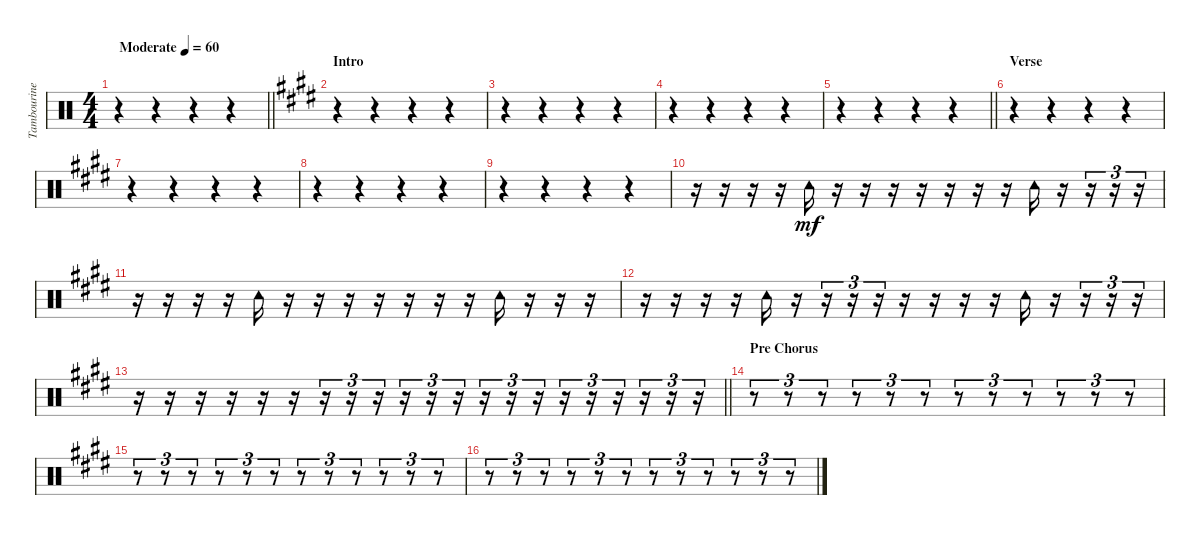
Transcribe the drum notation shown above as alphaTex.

\track ("Tambourine" "Tambourine") {instrument percussion}
\staff {score}
\articulation defaults
\ts (4 4)
\tempo (60 "Moderate")
\clef neutral
\barLineRight lightlight
\ks c
r.4{dy mf} r.4 r.4 r.4 |
\section ("" "Intro")
\ks e
r.4 r.4 r.4 r.4 |
r.4 r.4 r.4 r.4 |
r.4 r.4 r.4 r.4 |
\barLineRight lightlight
r.4 r.4 r.4 r.4 |
\section ("" "Verse")
r.4 r.4 r.4 r.4 |
r.4 r.4 r.4 r.4 |
r.4 r.4 r.4 r.4 |
r.4 r.4 r.4 r.4 |
r.16 r.16 r.16 r.16 "Tambourine (hit)".16 r.16 r.16 r.16 r.16 r.16 r.16 r.16 "Tambourine (hit)".16 r.16 r.16{tu (3 2)} r.16{tu (3 2)} r.16{tu (3 2)} |
r.16 r.16 r.16 r.16 "Tambourine (hit)".16 r.16 r.16 r.16 r.16 r.16 r.16 r.16 "Tambourine (hit)".16 r.16 r.16 r.16 |
r.16 r.16 r.16 r.16 "Tambourine (hit)".16 r.16 r.16{tu (3 2)} r.16{tu (3 2)} r.16{tu (3 2)} r.16 r.16 r.16 r.16 "Tambourine (hit)".16 r.16 r.16{tu (3 2)} r.16{tu (3 2)} r.16{tu (3 2)} |
\barLineRight lightlight
r.16 r.16 r.16 r.16 r.16 r.16 r.16{tu (3 2)} r.16{tu (3 2)} r.16{tu (3 2)} r.16{tu (3 2)} r.16{tu (3 2)} r.16{tu (3 2)} r.16{tu (3 2)} r.16{tu (3 2)} r.16{tu (3 2)} r.16{tu (3 2)} r.16{tu (3 2)} r.16{tu (3 2)} r.16{tu (3 2)} r.16{tu (3 2)} r.16{tu (3 2)} |
\section ("" "Pre Chorus")
r.8{tu (3 2)} r.8{tu (3 2)} r.8{tu (3 2)} r.8{tu (3 2)} r.8{tu (3 2)} r.8{tu (3 2)} r.8{tu (3 2)} r.8{tu (3 2)} r.8{tu (3 2)} r.8{tu (3 2)} r.8{tu (3 2)} r.8{tu (3 2)} |
r.8{tu (3 2)} r.8{tu (3 2)} r.8{tu (3 2)} r.8{tu (3 2)} r.8{tu (3 2)} r.8{tu (3 2)} r.8{tu (3 2)} r.8{tu (3 2)} r.8{tu (3 2)} r.8{tu (3 2)} r.8{tu (3 2)} r.8{tu (3 2)} |
r.8{tu (3 2)} r.8{tu (3 2)} r.8{tu (3 2)} r.8{tu (3 2)} r.8{tu (3 2)} r.8{tu (3 2)} r.8{tu (3 2)} r.8{tu (3 2)} r.8{tu (3 2)} r.8{tu (3 2)} r.8{tu (3 2)} r.8{tu (3 2)}
